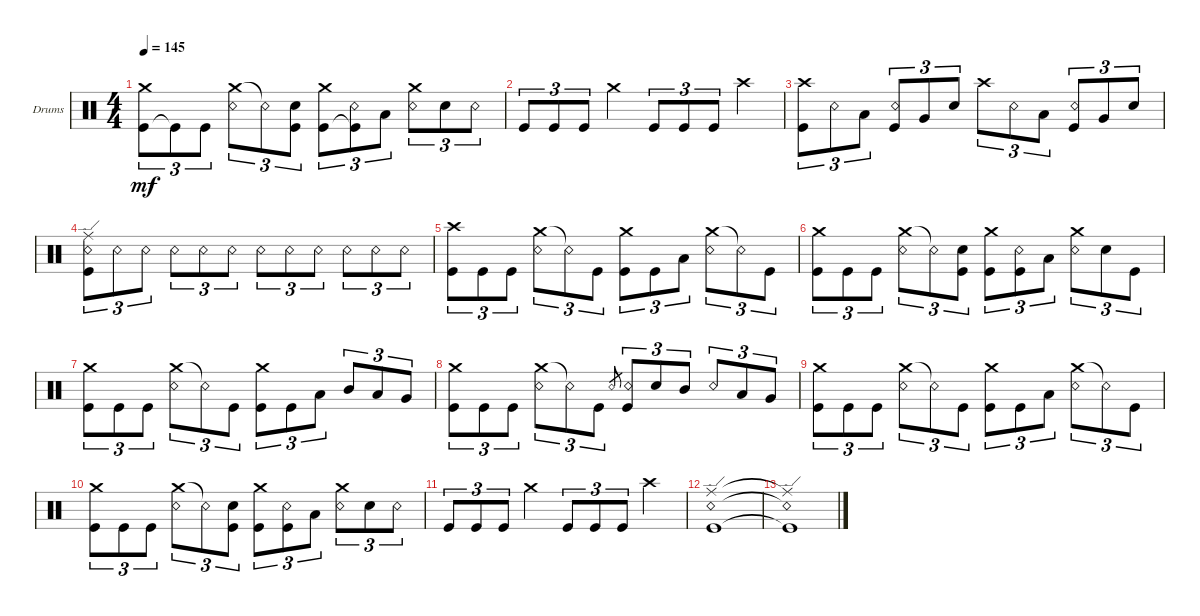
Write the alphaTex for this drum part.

\defaultSystemsLayout 4
\bracketExtendMode groupsimilarinstruments
\firstSystemTrackNameOrientation horizontal
\otherSystemsTrackNameOrientation horizontal
\track ("Drums" "Drums") {instrument percussion}
\staff {score}
\articulation defaults
\ts (4 4)
\tempo 145
\clef neutral
\ks c
("Kick (hit)" "Crash medium (hit)").8{tu (3 2) dy mf} "Kick (hit)"{t}.8{tu (3 2)} "Kick (hit)".8{tu (3 2)} ("Crash medium (hit)" "Snare (rim shot)").8{tu (3 2)} "Snare (rim shot)"{t}.8{tu (3 2)} ("Kick (hit)" "Snare (hit) 2").8{tu (3 2)} ("Kick (hit)" "Crash medium (hit)").8{tu (3 2)} ("Kick (hit)"{t} "Snare (rim shot)").8{tu (3 2)} "Low Tom (hit)".8{tu (3 2)} ("Crash medium (hit)" "Snare (rim shot)").8{tu (3 2)} "Snare (hit) 2".8{tu (3 2)} "Snare (rim shot)".8{tu (3 2)} |
"Kick (hit)".8{tu (3 2)} "Kick (hit)".8{tu (3 2)} "Kick (hit)".8{tu (3 2)} "Crash medium (hit)".4 "Kick (hit)".8{tu (3 2)} "Kick (hit)".8{tu (3 2)} "Kick (hit)".8{tu (3 2)} "Crash high (hit)".4 |
("Kick (hit)" "Crash high (hit)").8{tu (3 2)} "Snare (rim shot)".8{tu (3 2)} "Low Tom (hit)".8{tu (3 2)} ("Kick (hit)" "Snare (rim shot)").8{tu (3 2)} "Very Low Tom (hit)".8{tu (3 2)} "Snare (hit) 2".8{tu (3 2)} "Crash high (hit)".8{tu (3 2)} "Snare (rim shot)".8{tu (3 2)} "Low Tom (hit)".8{tu (3 2)} ("Kick (hit)" "Snare (rim shot)").8{tu (3 2)} "Very Low Tom (hit)".8{tu (3 2)} "Snare (hit) 2".8{tu (3 2)} |
("Snare (rim shot)" "Kick (hit)" "Ride (edge)").8{tu (3 2)} "Snare (rim shot)".8{tu (3 2)} "Snare (rim shot)".8{tu (3 2)} "Snare (rim shot)".8{tu (3 2)} "Snare (rim shot)".8{tu (3 2)} "Snare (rim shot)".8{tu (3 2)} "Snare (rim shot)".8{tu (3 2)} "Snare (rim shot)".8{tu (3 2)} "Snare (rim shot)".8{tu (3 2)} "Snare (rim shot)".8{tu (3 2)} "Snare (rim shot)".8{tu (3 2)} "Snare (rim shot)".8{tu (3 2)} |
("Kick (hit)" "Crash high (hit)").8{tu (3 2)} "Kick (hit)".8{tu (3 2)} "Kick (hit)".8{tu (3 2)} ("Crash medium (hit)" "Snare (rim shot)").8{tu (3 2)} "Snare (rim shot)"{t}.8{tu (3 2)} "Kick (hit)".8{tu (3 2)} ("Kick (hit)" "Crash medium (hit)").8{tu (3 2)} "Kick (hit)".8{tu (3 2)} "Low Tom (hit)".8{tu (3 2)} ("Crash medium (hit)" "Snare (rim shot)").8{tu (3 2)} "Snare (rim shot)"{t}.8{tu (3 2)} "Kick (hit)".8{tu (3 2)} |
("Kick (hit)" "Crash medium (hit)").8{tu (3 2)} "Kick (hit)".8{tu (3 2)} "Kick (hit)".8{tu (3 2)} ("Crash medium (hit)" "Snare (rim shot)").8{tu (3 2)} "Snare (rim shot)"{t}.8{tu (3 2)} ("Kick (hit)" "Snare (hit) 2").8{tu (3 2)} ("Kick (hit)" "Crash medium (hit)").8{tu (3 2)} ("Kick (hit)" "Snare (rim shot)").8{tu (3 2)} "Low Tom (hit)".8{tu (3 2)} ("Crash medium (hit)" "Snare (rim shot)").8{tu (3 2)} "Snare (hit) 2".8{tu (3 2)} "Kick (hit)".8{tu (3 2)} |
("Kick (hit)" "Crash medium (hit)").8{tu (3 2)} "Kick (hit)".8{tu (3 2)} "Kick (hit)".8{tu (3 2)} ("Crash medium (hit)" "Snare (rim shot)").8{tu (3 2)} "Snare (rim shot)"{t}.8{tu (3 2)} "Kick (hit)".8{tu (3 2)} ("Kick (hit)" "Crash medium (hit)").8{tu (3 2)} "Kick (hit)".8{tu (3 2)} "Low Tom (hit)".8{tu (3 2)} "Mid Tom (hit)".8{tu (3 2)} "Low Tom (hit)".8{tu (3 2)} "Very Low Tom (hit)".8{tu (3 2)} |
("Kick (hit)" "Crash medium (hit)").8{tu (3 2)} "Kick (hit)".8{tu (3 2)} "Kick (hit)".8{tu (3 2)} ("Crash medium (hit)" "Snare (rim shot)").8{tu (3 2)} "Snare (rim shot)"{t}.8{tu (3 2)} "Kick (hit)".8{tu (3 2)} "Snare (rim shot)".8{gr} ("Kick (hit)" "Snare (rim shot)").8{tu (3 2)} "Snare (hit) 2".8{tu (3 2)} "Mid Tom (hit)".8{tu (3 2)} "Snare (rim shot)".8{tu (3 2)} "Low Tom (hit)".8{tu (3 2)} "Very Low Tom (hit)".8{tu (3 2)} |
("Kick (hit)" "Crash medium (hit)").8{tu (3 2)} "Kick (hit)".8{tu (3 2)} "Kick (hit)".8{tu (3 2)} ("Crash medium (hit)" "Snare (rim shot)").8{tu (3 2)} "Snare (rim shot)"{t}.8{tu (3 2)} "Kick (hit)".8{tu (3 2)} ("Kick (hit)" "Crash medium (hit)").8{tu (3 2)} "Kick (hit)".8{tu (3 2)} "Low Tom (hit)".8{tu (3 2)} ("Crash medium (hit)" "Snare (rim shot)").8{tu (3 2)} "Snare (rim shot)"{t}.8{tu (3 2)} "Kick (hit)".8{tu (3 2)} |
("Kick (hit)" "Crash medium (hit)").8{tu (3 2)} "Kick (hit)".8{tu (3 2)} "Kick (hit)".8{tu (3 2)} ("Crash medium (hit)" "Snare (rim shot)").8{tu (3 2)} "Snare (rim shot)"{t}.8{tu (3 2)} ("Kick (hit)" "Snare (hit) 2").8{tu (3 2)} ("Kick (hit)" "Crash medium (hit)").8{tu (3 2)} ("Kick (hit)" "Snare (rim shot)").8{tu (3 2)} "Low Tom (hit)".8{tu (3 2)} ("Crash medium (hit)" "Snare (rim shot)").8{tu (3 2)} "Snare (hit) 2".8{tu (3 2)} "Snare (rim shot)".8{tu (3 2)} |
"Kick (hit)".8{tu (3 2)} "Kick (hit)".8{tu (3 2)} "Kick (hit)".8{tu (3 2)} "Crash medium (hit)".4 "Kick (hit)".8{tu (3 2)} "Kick (hit)".8{tu (3 2)} "Kick (hit)".8{tu (3 2)} "Crash high (hit)".4 |
("Kick (hit)" "Snare (rim shot)" "Ride (edge)").1 |
("Kick (hit)"{t} "Snare (rim shot)"{t} "Ride (edge)"{t}).1
